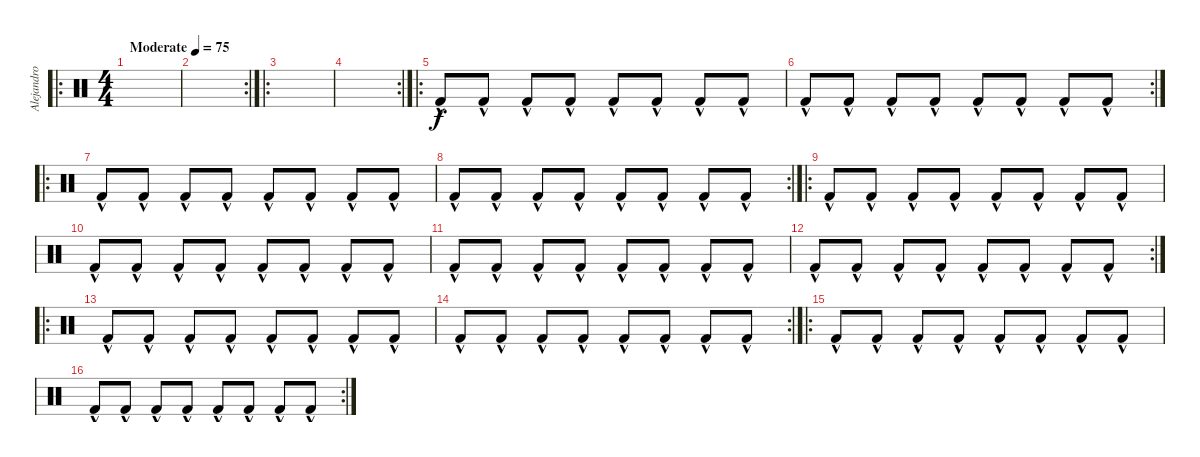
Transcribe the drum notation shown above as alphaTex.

\track ("Alejandro Manzano" "Alejandro ") {instrument percussion}
\staff {score}
\articulation defaults
\ro
\ts (4 4)
\tempo (75 "Moderate")
\clef neutral
\ks c
|
\rc 2
|
\ro
|
\rc 2
|
\ro "Kick (hit) 2"{hac}.8 "Kick (hit) 2"{hac}.8 "Kick (hit) 2"{hac}.8 "Kick (hit) 2"{hac}.8 "Kick (hit) 2"{hac}.8 "Kick (hit) 2"{hac}.8 "Kick (hit) 2"{hac}.8 "Kick (hit) 2"{hac}.8
|
\rc 2 "Kick (hit) 2"{hac}.8 "Kick (hit) 2"{hac}.8 "Kick (hit) 2"{hac}.8 "Kick (hit) 2"{hac}.8 "Kick (hit) 2"{hac}.8 "Kick (hit) 2"{hac}.8 "Kick (hit) 2"{hac}.8 "Kick (hit) 2"{hac}.8
|
\ro "Kick (hit) 2"{hac}.8 "Kick (hit) 2"{hac}.8 "Kick (hit) 2"{hac}.8 "Kick (hit) 2"{hac}.8 "Kick (hit) 2"{hac}.8 "Kick (hit) 2"{hac}.8 "Kick (hit) 2"{hac}.8 "Kick (hit) 2"{hac}.8
|
\rc 2 "Kick (hit) 2"{hac}.8 "Kick (hit) 2"{hac}.8 "Kick (hit) 2"{hac}.8 "Kick (hit) 2"{hac}.8 "Kick (hit) 2"{hac}.8 "Kick (hit) 2"{hac}.8 "Kick (hit) 2"{hac}.8 "Kick (hit) 2"{hac}.8
|
\ro "Kick (hit) 2"{hac}.8 "Kick (hit) 2"{hac}.8 "Kick (hit) 2"{hac}.8 "Kick (hit) 2"{hac}.8 "Kick (hit) 2"{hac}.8 "Kick (hit) 2"{hac}.8 "Kick (hit) 2"{hac}.8 "Kick (hit) 2"{hac}.8
|
"Kick (hit) 2"{hac}.8 "Kick (hit) 2"{hac}.8 "Kick (hit) 2"{hac}.8 "Kick (hit) 2"{hac}.8 "Kick (hit) 2"{hac}.8 "Kick (hit) 2"{hac}.8 "Kick (hit) 2"{hac}.8 "Kick (hit) 2"{hac}.8 |
"Kick (hit) 2"{hac}.8 "Kick (hit) 2"{hac}.8 "Kick (hit) 2"{hac}.8 "Kick (hit) 2"{hac}.8 "Kick (hit) 2"{hac}.8 "Kick (hit) 2"{hac}.8 "Kick (hit) 2"{hac}.8 "Kick (hit) 2"{hac}.8 |
\rc 2 "Kick (hit) 2"{hac}.8 "Kick (hit) 2"{hac}.8 "Kick (hit) 2"{hac}.8 "Kick (hit) 2"{hac}.8 "Kick (hit) 2"{hac}.8 "Kick (hit) 2"{hac}.8 "Kick (hit) 2"{hac}.8 "Kick (hit) 2"{hac}.8
|
\ro "Kick (hit) 2"{hac}.8 "Kick (hit) 2"{hac}.8 "Kick (hit) 2"{hac}.8 "Kick (hit) 2"{hac}.8 "Kick (hit) 2"{hac}.8 "Kick (hit) 2"{hac}.8 "Kick (hit) 2"{hac}.8 "Kick (hit) 2"{hac}.8
|
\rc 2 "Kick (hit) 2"{hac}.8 "Kick (hit) 2"{hac}.8 "Kick (hit) 2"{hac}.8 "Kick (hit) 2"{hac}.8 "Kick (hit) 2"{hac}.8 "Kick (hit) 2"{hac}.8 "Kick (hit) 2"{hac}.8 "Kick (hit) 2"{hac}.8
|
\ro "Kick (hit) 2"{hac}.8 "Kick (hit) 2"{hac}.8 "Kick (hit) 2"{hac}.8 "Kick (hit) 2"{hac}.8 "Kick (hit) 2"{hac}.8 "Kick (hit) 2"{hac}.8 "Kick (hit) 2"{hac}.8 "Kick (hit) 2"{hac}.8
|
\rc 2 "Kick (hit) 2"{hac}.8 "Kick (hit) 2"{hac}.8 "Kick (hit) 2"{hac}.8 "Kick (hit) 2"{hac}.8 "Kick (hit) 2"{hac}.8 "Kick (hit) 2"{hac}.8 "Kick (hit) 2"{hac}.8 "Kick (hit) 2"{hac}.8
